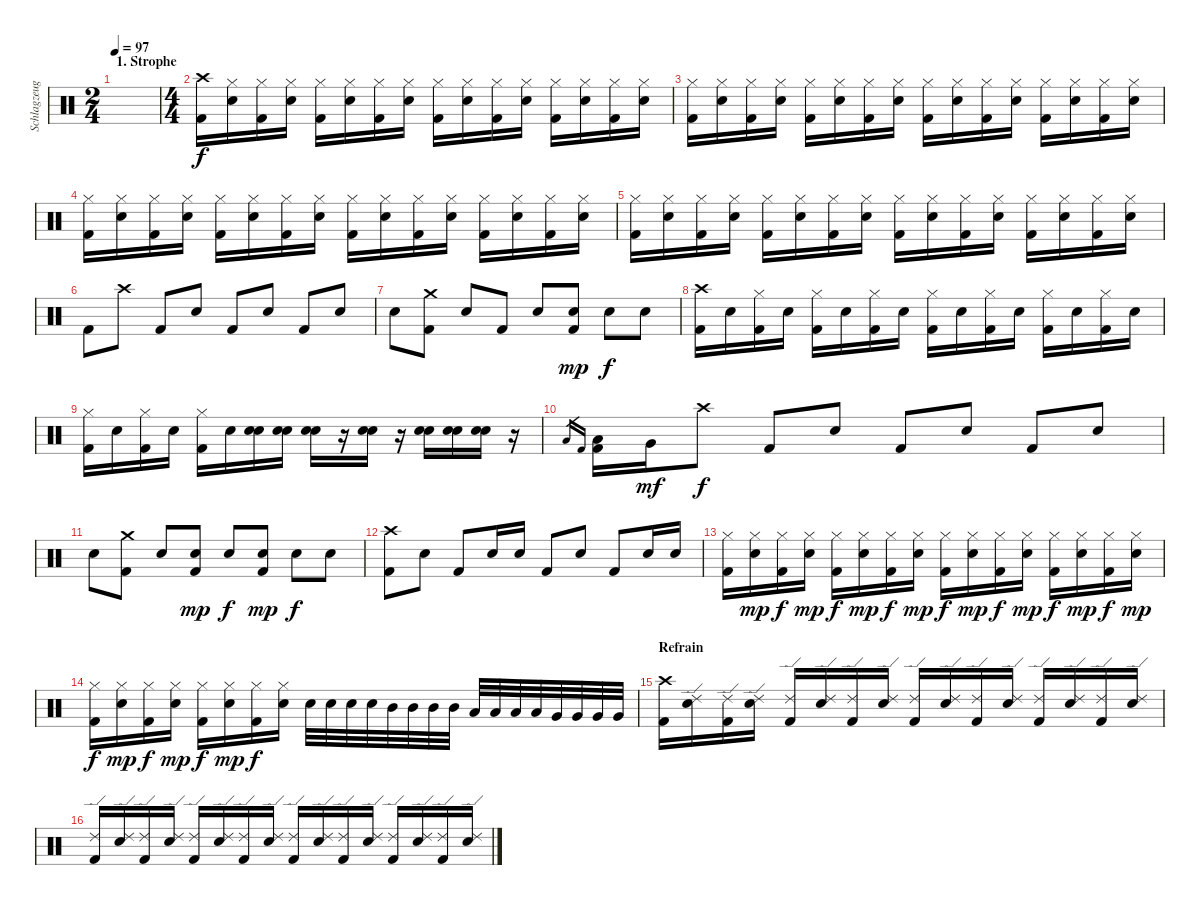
\track ("Schlagzeug" "Schlagzeug") {instrument percussion}
\staff {score}
\articulation defaults
\ts (2 4)
\section ("" "1. Strophe")
\tempo 97
\clef neutral
\ks c
|
\ts (4 4)
("Crash high (hit)" "Kick (hit) 2").16 ("Hi-Hat (closed)" "Electric Snare (hit)").16 ("Hi-Hat (closed)" "Kick (hit) 2").16 ("Hi-Hat (closed)" "Electric Snare (hit)").16 ("Hi-Hat (closed)" "Kick (hit) 2").16 ("Hi-Hat (closed)" "Electric Snare (hit)").16 ("Hi-Hat (closed)" "Kick (hit) 2").16 ("Hi-Hat (closed)" "Electric Snare (hit)").16 ("Hi-Hat (closed)" "Kick (hit) 2").16 ("Hi-Hat (closed)" "Electric Snare (hit)").16 ("Hi-Hat (closed)" "Kick (hit) 2").16 ("Hi-Hat (closed)" "Electric Snare (hit)").16 ("Hi-Hat (closed)" "Kick (hit) 2").16 ("Hi-Hat (closed)" "Electric Snare (hit)").16 ("Hi-Hat (closed)" "Kick (hit) 2").16 ("Hi-Hat (closed)" "Electric Snare (hit)").16 |
("Hi-Hat (closed)" "Kick (hit) 2").16 ("Hi-Hat (closed)" "Electric Snare (hit)").16 ("Hi-Hat (closed)" "Kick (hit) 2").16 ("Hi-Hat (closed)" "Electric Snare (hit)").16 ("Hi-Hat (closed)" "Kick (hit) 2").16 ("Hi-Hat (closed)" "Electric Snare (hit)").16 ("Hi-Hat (closed)" "Kick (hit) 2").16 ("Hi-Hat (closed)" "Electric Snare (hit)").16 ("Hi-Hat (closed)" "Kick (hit) 2").16 ("Hi-Hat (closed)" "Electric Snare (hit)").16 ("Hi-Hat (closed)" "Kick (hit) 2").16 ("Hi-Hat (closed)" "Electric Snare (hit)").16 ("Hi-Hat (closed)" "Kick (hit) 2").16 ("Hi-Hat (closed)" "Electric Snare (hit)").16 ("Hi-Hat (closed)" "Kick (hit) 2").16 ("Hi-Hat (closed)" "Electric Snare (hit)").16 |
("Hi-Hat (closed)" "Kick (hit) 2").16 ("Hi-Hat (closed)" "Electric Snare (hit)").16 ("Hi-Hat (closed)" "Kick (hit) 2").16 ("Hi-Hat (closed)" "Electric Snare (hit)").16 ("Hi-Hat (closed)" "Kick (hit) 2").16 ("Hi-Hat (closed)" "Electric Snare (hit)").16 ("Hi-Hat (closed)" "Kick (hit) 2").16 ("Hi-Hat (closed)" "Electric Snare (hit)").16 ("Hi-Hat (closed)" "Kick (hit) 2").16 ("Hi-Hat (closed)" "Electric Snare (hit)").16 ("Hi-Hat (closed)" "Kick (hit) 2").16 ("Hi-Hat (closed)" "Electric Snare (hit)").16 ("Hi-Hat (closed)" "Kick (hit) 2").16 ("Hi-Hat (closed)" "Electric Snare (hit)").16 ("Hi-Hat (closed)" "Kick (hit) 2").16 ("Hi-Hat (closed)" "Electric Snare (hit)").16 |
("Hi-Hat (closed)" "Kick (hit) 2").16 ("Hi-Hat (closed)" "Electric Snare (hit)").16 ("Hi-Hat (closed)" "Kick (hit) 2").16 ("Hi-Hat (closed)" "Electric Snare (hit)").16 ("Hi-Hat (closed)" "Kick (hit) 2").16 ("Hi-Hat (closed)" "Electric Snare (hit)").16 ("Hi-Hat (closed)" "Kick (hit) 2").16 ("Hi-Hat (closed)" "Electric Snare (hit)").16 ("Hi-Hat (closed)" "Kick (hit) 2").16 ("Hi-Hat (closed)" "Electric Snare (hit)").16 ("Hi-Hat (closed)" "Kick (hit) 2").16 ("Hi-Hat (closed)" "Electric Snare (hit)").16 ("Hi-Hat (closed)" "Kick (hit) 2").16 ("Hi-Hat (closed)" "Electric Snare (hit)").16 ("Hi-Hat (closed)" "Kick (hit) 2").16 ("Hi-Hat (closed)" "Electric Snare (hit)").16 |
"Kick (hit) 2".8 "Crash high (hit)".8 "Kick (hit) 2".8 "Electric Snare (hit)".8 "Kick (hit) 2".8 "Electric Snare (hit)".8 "Kick (hit) 2".8 "Electric Snare (hit)".8 |
"Electric Snare (hit)".8 ("Crash medium (hit)" "Kick (hit) 2").8 "Electric Snare (hit)".8 "Kick (hit) 2".8 "Electric Snare (hit)".8 ("Electric Snare (hit)" "Kick (hit) 2").8{dy mp} "Electric Snare (hit)".8{dy f} "Electric Snare (hit)".8 |
("Crash high (hit)" "Kick (hit) 2").16 "Electric Snare (hit)".16 ("Hi-Hat (closed)" "Kick (hit) 2").16 "Electric Snare (hit)".16 ("Hi-Hat (closed)" "Kick (hit) 2").16 "Electric Snare (hit)".16 ("Hi-Hat (closed)" "Kick (hit) 2").16 "Electric Snare (hit)".16 ("Hi-Hat (closed)" "Kick (hit) 2").16 "Electric Snare (hit)".16 ("Hi-Hat (closed)" "Kick (hit) 2").16 "Electric Snare (hit)".16 ("Hi-Hat (closed)" "Kick (hit) 2").16 "Electric Snare (hit)".16 ("Hi-Hat (closed)" "Kick (hit) 2").16 "Electric Snare (hit)".16 |
("Hi-Hat (closed)" "Kick (hit) 2").16 "Electric Snare (hit)".16 ("Hi-Hat (closed)" "Kick (hit) 2").16 "Electric Snare (hit)".16 ("Hi-Hat (closed)" "Kick (hit) 2").16 "Electric Snare (hit)".16 ("Electric Snare (hit)" "Snare (hit) 2").16 ("Electric Snare (hit)" "Snare (hit) 2").16 ("Electric Snare (hit)" "Snare (hit) 2").16 r.16 ("Electric Snare (hit)" "Snare (hit) 2").16 r.16 ("Electric Snare (hit)" "Snare (hit) 2").16 ("Electric Snare (hit)" "Snare (hit) 2").16 ("Electric Snare (hit)" "Snare (hit) 2").16 r.16 |
"Low Floor Tom (hit)".16{gr} "Kick (hit) 2".16{gr} ("Low Floor Tom (hit)" "Kick (hit) 2").16 "Very Low Tom (hit)".16{dy mf} "Crash high (hit)".8{dy f} "Kick (hit) 2".8 "Electric Snare (hit)".8 "Kick (hit) 2".8 "Electric Snare (hit)".8 "Kick (hit) 2".8 "Electric Snare (hit)".8 |
"Electric Snare (hit)".8 ("Crash medium (hit)" "Kick (hit) 2").8 "Electric Snare (hit)".8 ("Electric Snare (hit)" "Kick (hit) 2").8{dy mp} "Electric Snare (hit)".8{dy f} ("Electric Snare (hit)" "Kick (hit) 2").8{dy mp} "Electric Snare (hit)".8{dy f} "Electric Snare (hit)".8 |
("Crash high (hit)" "Kick (hit) 2").8 "Electric Snare (hit)".8 "Kick (hit) 2".8 "Electric Snare (hit)".16 "Electric Snare (hit)".16 "Kick (hit) 2".8 "Electric Snare (hit)".8 "Kick (hit) 2".8 "Electric Snare (hit)".16 "Electric Snare (hit)".16 |
("Hi-Hat (closed)" "Kick (hit) 2").16 ("Hi-Hat (closed)" "Electric Snare (hit)").16{dy mp} ("Hi-Hat (closed)" "Kick (hit) 2").16{dy f} ("Hi-Hat (closed)" "Electric Snare (hit)").16{dy mp} ("Hi-Hat (closed)" "Kick (hit) 2").16{dy f} ("Hi-Hat (closed)" "Electric Snare (hit)").16{dy mp} ("Hi-Hat (closed)" "Kick (hit) 2").16{dy f} ("Hi-Hat (closed)" "Electric Snare (hit)").16{dy mp} ("Hi-Hat (closed)" "Kick (hit) 2").16{dy f} ("Hi-Hat (closed)" "Electric Snare (hit)").16{dy mp} ("Hi-Hat (closed)" "Kick (hit) 2").16{dy f} ("Hi-Hat (closed)" "Electric Snare (hit)").16{dy mp} ("Hi-Hat (closed)" "Kick (hit) 2").16{dy f} ("Hi-Hat (closed)" "Electric Snare (hit)").16{dy mp} ("Hi-Hat (closed)" "Kick (hit) 2").16{dy f} ("Hi-Hat (closed)" "Electric Snare (hit)").16{dy mp} |
("Hi-Hat (closed)" "Kick (hit) 2").16{dy f} ("Hi-Hat (closed)" "Electric Snare (hit)").16{dy mp} ("Hi-Hat (closed)" "Kick (hit) 2").16{dy f} ("Hi-Hat (closed)" "Electric Snare (hit)").16{dy mp} ("Hi-Hat (closed)" "Kick (hit) 2").16{dy f} ("Hi-Hat (closed)" "Electric Snare (hit)").16{dy mp} ("Hi-Hat (closed)" "Kick (hit) 2").16{dy f} ("Hi-Hat (closed)" "Electric Snare (hit)").16 "Electric Snare (hit)".32 "Electric Snare (hit)".32 "Electric Snare (hit)".32 "Electric Snare (hit)".32 "Mid Tom (hit)".32 "Mid Tom (hit)".32 "Mid Tom (hit)".32 "Mid Tom (hit)".32 "Low Tom (hit)".32 "Low Tom (hit)".32 "Low Tom (hit)".32 "Low Tom (hit)".32 "Very Low Tom (hit)".32 "Very Low Tom (hit)".32 "Very Low Tom (hit)".32 "Very Low Tom (hit)".32 |
\section ("" "Refrain")
("Crash high (hit)" "Kick (hit) 2").16 ("Ride (edge) 2" "Electric Snare (hit)").16 ("Ride (edge) 2" "Kick (hit) 2").16 ("Ride (edge) 2" "Electric Snare (hit)").16 ("Ride (edge) 2" "Kick (hit) 2").16 ("Ride (edge) 2" "Electric Snare (hit)").16 ("Ride (edge) 2" "Kick (hit) 2").16 ("Ride (edge) 2" "Electric Snare (hit)").16 ("Ride (edge) 2" "Kick (hit) 2").16 ("Ride (edge) 2" "Electric Snare (hit)").16 ("Ride (edge) 2" "Kick (hit) 2").16 ("Ride (edge) 2" "Electric Snare (hit)").16 ("Ride (edge) 2" "Kick (hit) 2").16 ("Ride (edge) 2" "Electric Snare (hit)").16 ("Ride (edge) 2" "Kick (hit) 2").16 ("Ride (edge) 2" "Electric Snare (hit)").16 |
("Ride (edge) 2" "Kick (hit) 2").16 ("Ride (edge) 2" "Electric Snare (hit)").16 ("Ride (edge) 2" "Kick (hit) 2").16 ("Ride (edge) 2" "Electric Snare (hit)").16 ("Ride (edge) 2" "Kick (hit) 2").16 ("Ride (edge) 2" "Electric Snare (hit)").16 ("Ride (edge) 2" "Kick (hit) 2").16 ("Ride (edge) 2" "Electric Snare (hit)").16 ("Ride (edge) 2" "Kick (hit) 2").16 ("Ride (edge) 2" "Electric Snare (hit)").16 ("Ride (edge) 2" "Kick (hit) 2").16 ("Ride (edge) 2" "Electric Snare (hit)").16 ("Ride (edge) 2" "Kick (hit) 2").16 ("Ride (edge) 2" "Electric Snare (hit)").16 ("Ride (edge) 2" "Kick (hit) 2").16 ("Ride (edge) 2" "Electric Snare (hit)").16
